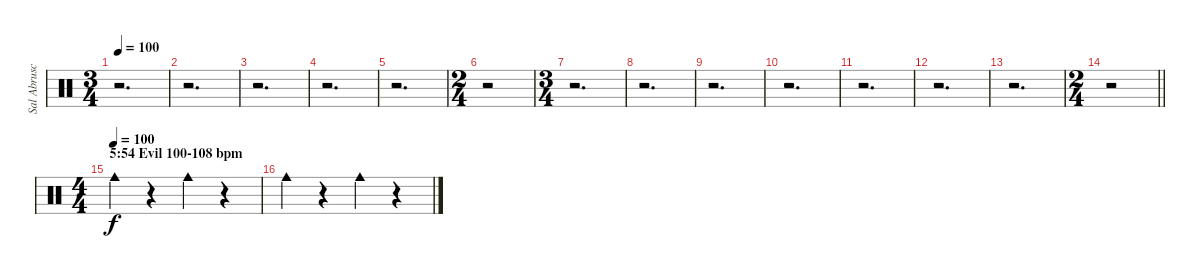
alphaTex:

\track ("Sal Abruscato (Drums)" "Sal Abrusc") {instrument percussion}
\staff {score}
\articulation defaults
\ts (3 4)
\tempo 100
\clef neutral
\ks c
r.2{d dy ff} |
r.2{d} |
r.2{d} |
r.2{d} |
r.2{d} |
\ts (2 4)
r.2 |
\ts (3 4)
r.2{d} |
r.2{d} |
r.2{d} |
r.2{d} |
r.2{d} |
r.2{d} |
r.2{d} |
\ts (2 4)
\barLineRight lightlight
r.2 |
\ts (4 4)
\section ("" "5:54 Evil 100-108 bpm")
\tempo (100)
"Cowbell medium (hit)".4{dy f} r.4 "Cowbell medium (hit)".4 r.4 |
"Cowbell medium (hit)".4 r.4 "Cowbell medium (hit)".4 r.4
